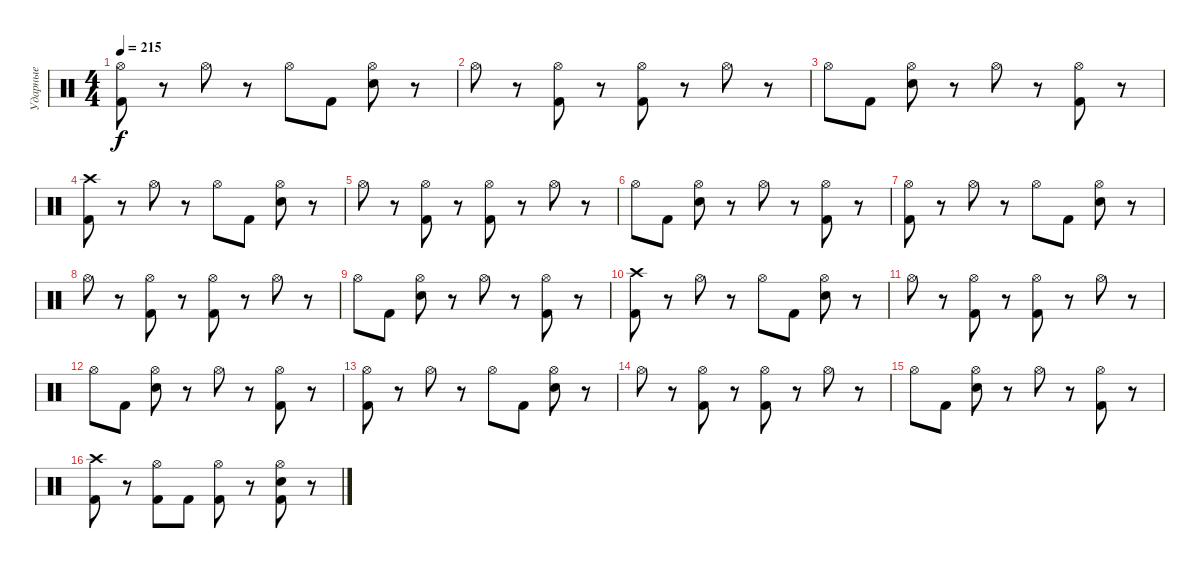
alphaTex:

\track ("Ударные" "Ударные") {instrument percussion}
\staff {score}
\articulation defaults
\ts (4 4)
\tempo 215
\clef neutral
\ks c
("Hi-Hat (open)" "Kick (hit) 2").8{dy f} r.8 "Hi-Hat (open)".8 r.8 "Hi-Hat (open)".8 "Kick (hit) 2".8 ("Hi-Hat (open)" "Snare (hit) 2").8 r.8 |
"Hi-Hat (open)".8 r.8 ("Hi-Hat (open)" "Kick (hit) 2").8 r.8 ("Hi-Hat (open)" "Kick (hit) 2").8 r.8 "Hi-Hat (open)".8 r.8 |
"Hi-Hat (open)".8 "Kick (hit) 2".8 ("Hi-Hat (open)" "Snare (hit) 2").8 r.8 "Hi-Hat (open)".8 r.8 ("Hi-Hat (open)" "Kick (hit) 2").8 r.8 |
("Crash high (hit)" "Kick (hit) 2").8 r.8 "Hi-Hat (open)".8 r.8 "Hi-Hat (open)".8 "Kick (hit) 2".8 ("Hi-Hat (open)" "Snare (hit) 2").8 r.8 |
"Hi-Hat (open)".8 r.8 ("Hi-Hat (open)" "Kick (hit) 2").8 r.8 ("Hi-Hat (open)" "Kick (hit) 2").8 r.8 "Hi-Hat (open)".8 r.8 |
"Hi-Hat (open)".8 "Kick (hit) 2".8 ("Hi-Hat (open)" "Snare (hit) 2").8 r.8 "Hi-Hat (open)".8 r.8 ("Hi-Hat (open)" "Kick (hit) 2").8 r.8 |
("Hi-Hat (open)" "Kick (hit) 2").8 r.8 "Hi-Hat (open)".8 r.8 "Hi-Hat (open)".8 "Kick (hit) 2".8 ("Hi-Hat (open)" "Snare (hit) 2").8 r.8 |
"Hi-Hat (open)".8 r.8 ("Hi-Hat (open)" "Kick (hit) 2").8 r.8 ("Hi-Hat (open)" "Kick (hit) 2").8 r.8 "Hi-Hat (open)".8 r.8 |
"Hi-Hat (open)".8 "Kick (hit) 2".8 ("Hi-Hat (open)" "Snare (hit) 2").8 r.8 "Hi-Hat (open)".8 r.8 ("Hi-Hat (open)" "Kick (hit) 2").8 r.8 |
("Crash high (hit)" "Kick (hit) 2").8 r.8 "Hi-Hat (open)".8 r.8 "Hi-Hat (open)".8 "Kick (hit) 2".8 ("Hi-Hat (open)" "Snare (hit) 2").8 r.8 |
"Hi-Hat (open)".8 r.8 ("Hi-Hat (open)" "Kick (hit) 2").8 r.8 ("Hi-Hat (open)" "Kick (hit) 2").8 r.8 "Hi-Hat (open)".8 r.8 |
"Hi-Hat (open)".8 "Kick (hit) 2".8 ("Hi-Hat (open)" "Snare (hit) 2").8 r.8 "Hi-Hat (open)".8 r.8 ("Hi-Hat (open)" "Kick (hit) 2").8 r.8 |
("Hi-Hat (open)" "Kick (hit) 2").8 r.8 "Hi-Hat (open)".8 r.8 "Hi-Hat (open)".8 "Kick (hit) 2".8 ("Hi-Hat (open)" "Snare (hit) 2").8 r.8 |
"Hi-Hat (open)".8 r.8 ("Hi-Hat (open)" "Kick (hit) 2").8 r.8 ("Hi-Hat (open)" "Kick (hit) 2").8 r.8 "Hi-Hat (open)".8 r.8 |
"Hi-Hat (open)".8 "Kick (hit) 2".8 ("Hi-Hat (open)" "Snare (hit) 2").8 r.8 "Hi-Hat (open)".8 r.8 ("Hi-Hat (open)" "Kick (hit) 2").8 r.8 |
("Crash high (hit)" "Kick (hit) 2").8 r.8 ("Hi-Hat (open)" "Kick (hit) 2").8 "Kick (hit) 2".8 ("Hi-Hat (open)" "Kick (hit) 2").8 r.8 ("Hi-Hat (open)" "Snare (hit) 2" "Kick (hit) 2").8 r.8
